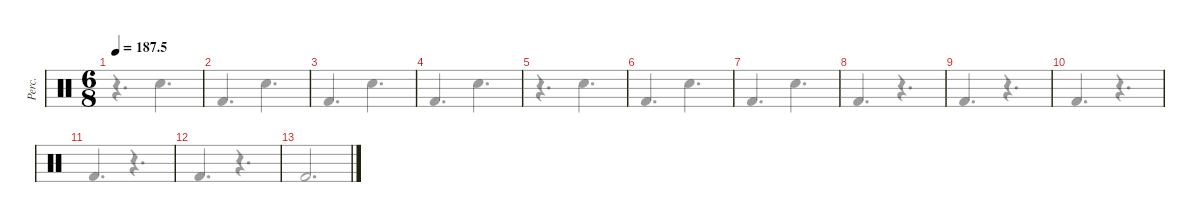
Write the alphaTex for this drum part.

\defaultSystemsLayout 4
\hideDynamics
\bracketExtendMode groupsimilarinstruments
\otherSystemsTrackNameOrientation horizontal
\track ("Percussions" "Perc.") {instrument percussion}
\staff {score}
\articulation defaults
\voice
\ts (6 8)
\tempo
187.5
\accidentals auto
\clef neutral
\ottava regular
\simile none
\ks c
|
|
|
|
|
|
|
|
|
|
|
|
\voice
\clef neutral
\ottava regular
\simile none
\ks c
r.4{d dy mf beam Down} "Snare (hit) 2".4{d beam Down} |
"Kick (hit) 2".4{d beam Up} "Snare (hit) 2".4{d beam Down} |
"Kick (hit) 2".4{d beam Up} "Snare (hit) 2".4{d beam Down} |
"Kick (hit) 2".4{d beam Up} "Snare (hit) 2".4{d beam Down} |
r.4{d beam Down} "Snare (hit) 2".4{d beam Down} |
"Kick (hit) 2".4{d beam Up} "Snare (hit) 2".4{d beam Down} |
"Kick (hit) 2".4{d beam Up} "Snare (hit) 2".4{d beam Down} |
"Kick (hit) 2".4{d beam Up} r.4{d beam Up} |
"Kick (hit) 2".4{d beam Up} r.4{d beam Up} |
"Kick (hit) 2".4{d beam Up} r.4{d beam Up} |
"Kick (hit) 2".4{d beam Up} r.4{d beam Up} |
"Kick (hit) 2".4{d beam Up} r.4{d beam Up} |
"Kick (hit) 2".2{d fermata (medium 1) beam Up}
